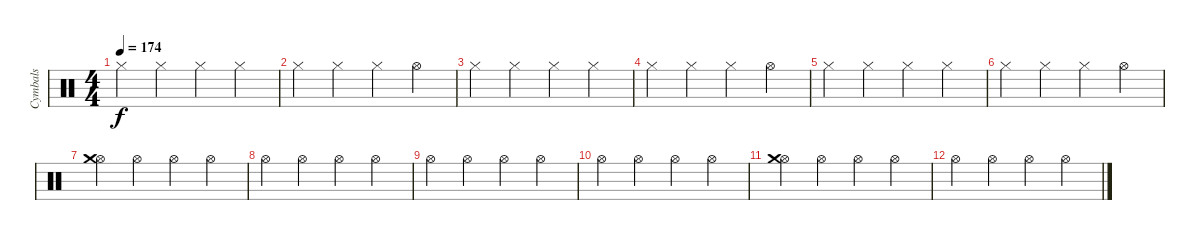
\track ("Cymbals" "Cymbals") {instrument percussion}
\staff {score}
\articulation defaults
\ts (4 4)
\tempo 174
\clef neutral
\ks c "Hi-Hat (closed)".4{dy f} "Hi-Hat (closed)".4 "Hi-Hat (closed)".4 "Hi-Hat (closed)".4
|
"Hi-Hat (closed)".4 "Hi-Hat (closed)".4 "Hi-Hat (closed)".4 "Hi-Hat (open)".4 |
"Hi-Hat (closed)".4 "Hi-Hat (closed)".4 "Hi-Hat (closed)".4 "Hi-Hat (closed)".4 |
"Hi-Hat (closed)".4 "Hi-Hat (closed)".4 "Hi-Hat (closed)".4 "Hi-Hat (open)".4 |
"Hi-Hat (closed)".4 "Hi-Hat (closed)".4 "Hi-Hat (closed)".4 "Hi-Hat (closed)".4 |
"Hi-Hat (closed)".4 "Hi-Hat (closed)".4 "Hi-Hat (closed)".4 "Hi-Hat (open)".4 |
("Hi-Hat (open)" "Crash medium (hit)").4 "Hi-Hat (open)".4 "Hi-Hat (open)".4 "Hi-Hat (open)".4 |
"Hi-Hat (open)".4 "Hi-Hat (open)".4 "Hi-Hat (open)".4 "Hi-Hat (open)".4 |
"Hi-Hat (open)".4 "Hi-Hat (open)".4 "Hi-Hat (open)".4 "Hi-Hat (open)".4 |
"Hi-Hat (open)".4 "Hi-Hat (open)".4 "Hi-Hat (open)".4 "Hi-Hat (open)".4 |
("Hi-Hat (open)" "Crash medium (hit)").4 "Hi-Hat (open)".4 "Hi-Hat (open)".4 "Hi-Hat (open)".4 |
"Hi-Hat (open)".4 "Hi-Hat (open)".4 "Hi-Hat (open)".4 "Hi-Hat (open)".4
